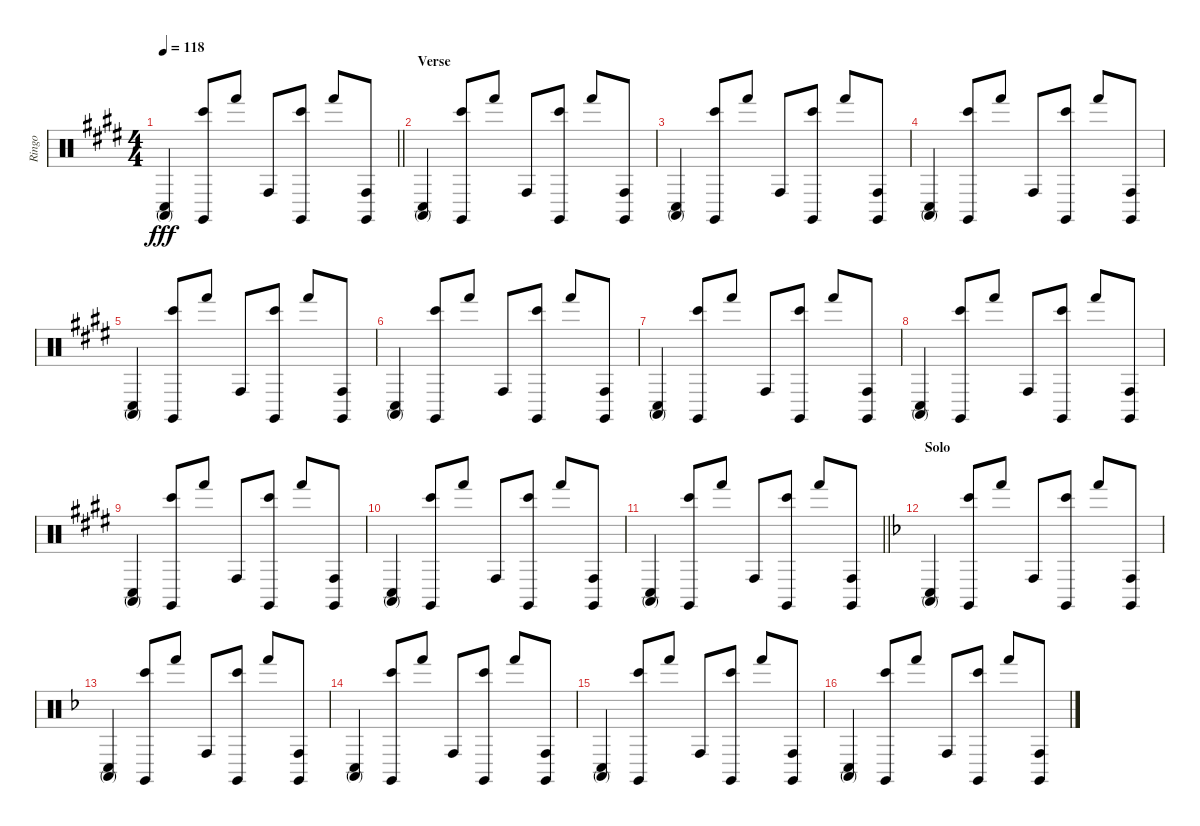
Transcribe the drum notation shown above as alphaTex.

\track ("Ringo" "Ringo") {instrument percussion}
\staff {score}
\articulation defaults
\ts (4 4)
\tempo 118
\clef neutral
\barLineRight lightlight
\ks e
("Conga low (hit)" "Conga high (mute)").4{dy fff} ("Claves (hit)" "Bongo High (hit)").8 "Hand (hit)".8 "Conga high (hit)".8 ("Claves (hit)" "Bongo High (hit)").8 "Hand (hit)".8 ("Claves (hit)" "Conga high (hit)").8 |
\section ("" "Verse")
("Conga low (hit)" "Conga high (mute)").4 ("Claves (hit)" "Bongo High (hit)").8 "Hand (hit)".8 "Conga high (hit)".8 ("Claves (hit)" "Bongo High (hit)").8 "Hand (hit)".8 ("Claves (hit)" "Conga high (hit)").8 |
("Conga low (hit)" "Conga high (mute)").4 ("Claves (hit)" "Bongo High (hit)").8 "Hand (hit)".8 "Conga high (hit)".8 ("Claves (hit)" "Bongo High (hit)").8 "Hand (hit)".8 ("Claves (hit)" "Conga high (hit)").8 |
("Conga low (hit)" "Conga high (mute)").4 ("Claves (hit)" "Bongo High (hit)").8 "Hand (hit)".8 "Conga high (hit)".8 ("Claves (hit)" "Bongo High (hit)").8 "Hand (hit)".8 ("Claves (hit)" "Conga high (hit)").8 |
("Conga low (hit)" "Conga high (mute)").4 ("Claves (hit)" "Bongo High (hit)").8 "Hand (hit)".8 "Conga high (hit)".8 ("Claves (hit)" "Bongo High (hit)").8 "Hand (hit)".8 ("Claves (hit)" "Conga high (hit)").8 |
("Conga low (hit)" "Conga high (mute)").4 ("Claves (hit)" "Bongo High (hit)").8 "Hand (hit)".8 "Conga high (hit)".8 ("Claves (hit)" "Bongo High (hit)").8 "Hand (hit)".8 ("Claves (hit)" "Conga high (hit)").8 |
("Conga low (hit)" "Conga high (mute)").4 ("Claves (hit)" "Bongo High (hit)").8 "Hand (hit)".8 "Conga high (hit)".8 ("Claves (hit)" "Bongo High (hit)").8 "Hand (hit)".8 ("Claves (hit)" "Conga high (hit)").8 |
("Conga low (hit)" "Conga high (mute)").4 ("Claves (hit)" "Bongo High (hit)").8 "Hand (hit)".8 "Conga high (hit)".8 ("Claves (hit)" "Bongo High (hit)").8 "Hand (hit)".8 ("Claves (hit)" "Conga high (hit)").8 |
("Conga low (hit)" "Conga high (mute)").4 ("Claves (hit)" "Bongo High (hit)").8 "Hand (hit)".8 "Conga high (hit)".8 ("Claves (hit)" "Bongo High (hit)").8 "Hand (hit)".8 ("Claves (hit)" "Conga high (hit)").8 |
("Conga low (hit)" "Conga high (mute)").4 ("Claves (hit)" "Bongo High (hit)").8 "Hand (hit)".8 "Conga high (hit)".8 ("Claves (hit)" "Bongo High (hit)").8 "Hand (hit)".8 ("Claves (hit)" "Conga high (hit)").8 |
\barLineRight lightlight
("Conga low (hit)" "Conga high (mute)").4 ("Claves (hit)" "Bongo High (hit)").8 "Hand (hit)".8 "Conga high (hit)".8 ("Claves (hit)" "Bongo High (hit)").8 "Hand (hit)".8 ("Claves (hit)" "Conga high (hit)").8 |
\section ("" "Solo")
\ks f
("Conga low (hit)" "Conga high (mute)").4 ("Claves (hit)" "Bongo High (hit)").8 "Hand (hit)".8 "Conga high (hit)".8 ("Claves (hit)" "Bongo High (hit)").8 "Hand (hit)".8 ("Claves (hit)" "Conga high (hit)").8 |
("Conga low (hit)" "Conga high (mute)").4 ("Claves (hit)" "Bongo High (hit)").8 "Hand (hit)".8 "Conga high (hit)".8 ("Claves (hit)" "Bongo High (hit)").8 "Hand (hit)".8 ("Claves (hit)" "Conga high (hit)").8 |
("Conga low (hit)" "Conga high (mute)").4 ("Claves (hit)" "Bongo High (hit)").8 "Hand (hit)".8 "Conga high (hit)".8 ("Claves (hit)" "Bongo High (hit)").8 "Hand (hit)".8 ("Claves (hit)" "Conga high (hit)").8 |
("Conga low (hit)" "Conga high (mute)").4 ("Claves (hit)" "Bongo High (hit)").8 "Hand (hit)".8 "Conga high (hit)".8 ("Claves (hit)" "Bongo High (hit)").8 "Hand (hit)".8 ("Claves (hit)" "Conga high (hit)").8 |
("Conga low (hit)" "Conga high (mute)").4 ("Claves (hit)" "Bongo High (hit)").8 "Hand (hit)".8 "Conga high (hit)".8 ("Claves (hit)" "Bongo High (hit)").8 "Hand (hit)".8 ("Claves (hit)" "Conga high (hit)").8
